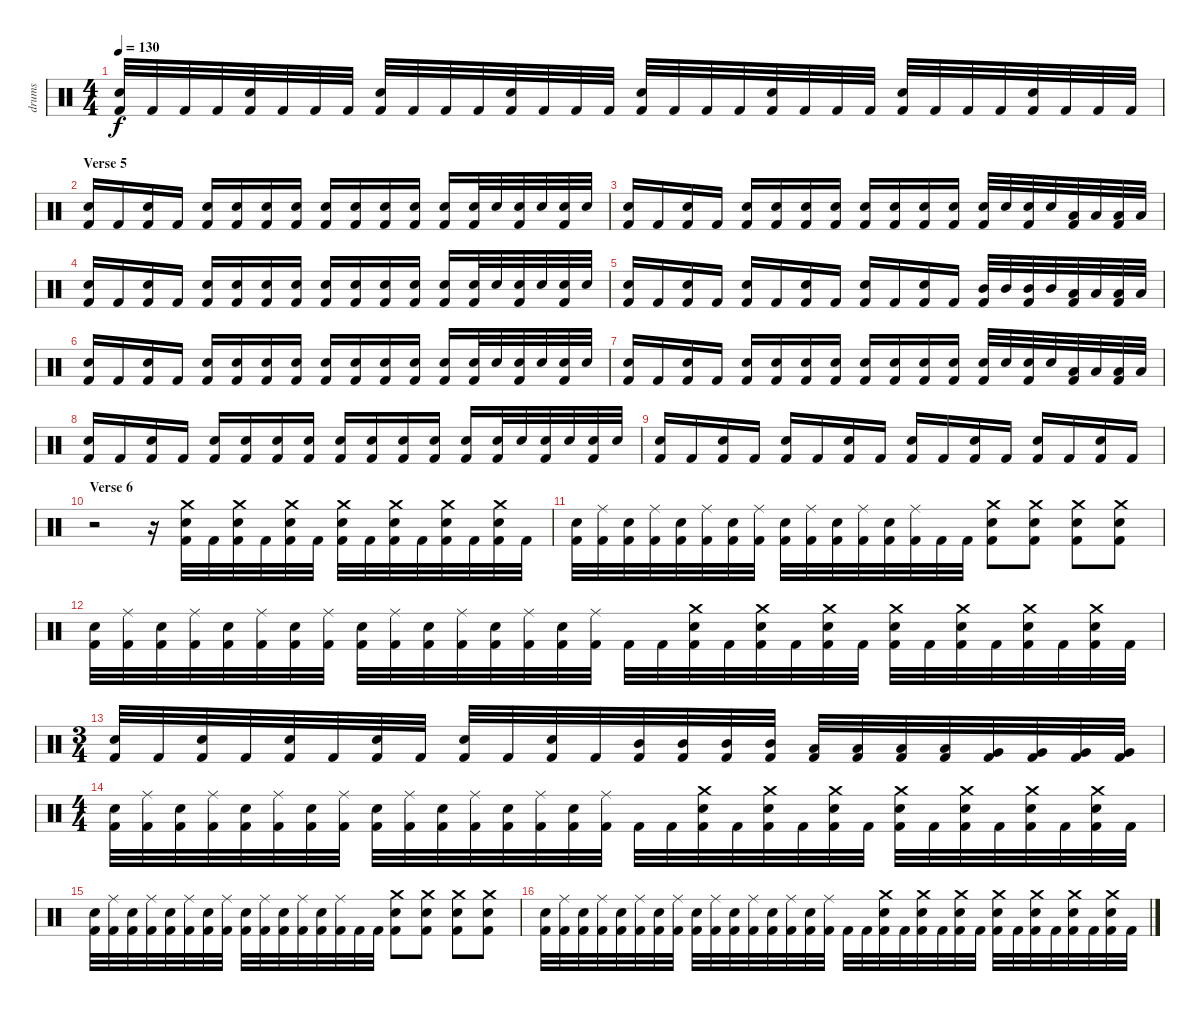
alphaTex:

\track ("drums" "drums") {instrument percussion}
\staff {score}
\articulation defaults
\ts (4 4)
\tempo 130
\clef neutral
\ks c
("Electric Snare (hit)" "Kick (hit) 2").32{dy f} "Kick (hit) 2".32 "Kick (hit) 2".32 "Kick (hit) 2".32 ("Electric Snare (hit)" "Kick (hit) 2").32 "Kick (hit) 2".32 "Kick (hit) 2".32 "Kick (hit) 2".32 ("Electric Snare (hit)" "Kick (hit) 2").32 "Kick (hit) 2".32 "Kick (hit) 2".32 "Kick (hit) 2".32 ("Electric Snare (hit)" "Kick (hit) 2").32 "Kick (hit) 2".32 "Kick (hit) 2".32 "Kick (hit) 2".32 ("Electric Snare (hit)" "Kick (hit) 2").32 "Kick (hit) 2".32 "Kick (hit) 2".32 "Kick (hit) 2".32 ("Electric Snare (hit)" "Kick (hit) 2").32 "Kick (hit) 2".32 "Kick (hit) 2".32 "Kick (hit) 2".32 ("Electric Snare (hit)" "Kick (hit) 2").32 "Kick (hit) 2".32 "Kick (hit) 2".32 "Kick (hit) 2".32 ("Electric Snare (hit)" "Kick (hit) 2").32 "Kick (hit) 2".32 "Kick (hit) 2".32 "Kick (hit) 2".32 |
\section ("" "Verse 5")
("Electric Snare (hit)" "Kick (hit) 2").16 "Kick (hit) 2".16 ("Electric Snare (hit)" "Kick (hit) 2").16 "Kick (hit) 2".16 ("Electric Snare (hit)" "Kick (hit) 2").16 ("Electric Snare (hit)" "Kick (hit) 2").16 ("Electric Snare (hit)" "Kick (hit) 2").16 ("Electric Snare (hit)" "Kick (hit) 2").16 ("Electric Snare (hit)" "Kick (hit) 2").16 ("Electric Snare (hit)" "Kick (hit) 2").16 ("Electric Snare (hit)" "Kick (hit) 2").16 ("Electric Snare (hit)" "Kick (hit) 2").16 ("Electric Snare (hit)" "Kick (hit) 2").16 ("Electric Snare (hit)" "Kick (hit) 2").32 "Electric Snare (hit)".32 ("Electric Snare (hit)" "Kick (hit) 2").32 "Electric Snare (hit)".32 ("Electric Snare (hit)" "Kick (hit) 2").32 "Electric Snare (hit)".32 |
("Electric Snare (hit)" "Kick (hit) 2").16 "Kick (hit) 2".16 ("Electric Snare (hit)" "Kick (hit) 2").16 "Kick (hit) 2".16 ("Electric Snare (hit)" "Kick (hit) 2").16 ("Electric Snare (hit)" "Kick (hit) 2").16 ("Electric Snare (hit)" "Kick (hit) 2").16 ("Electric Snare (hit)" "Kick (hit) 2").16 ("Electric Snare (hit)" "Kick (hit) 2").16 ("Electric Snare (hit)" "Kick (hit) 2").16 ("Electric Snare (hit)" "Kick (hit) 2").16 ("Electric Snare (hit)" "Kick (hit) 2").16 ("Electric Snare (hit)" "Kick (hit) 2").32 "Electric Snare (hit)".32 ("Electric Snare (hit)" "Kick (hit) 2").32 "Electric Snare (hit)".32 ("Low Tom (hit)" "Kick (hit) 2").32 "Low Tom (hit)".32 ("Low Tom (hit)" "Kick (hit) 2").32 "Low Tom (hit)".32 |
("Electric Snare (hit)" "Kick (hit) 2").16 "Kick (hit) 2".16 ("Electric Snare (hit)" "Kick (hit) 2").16 "Kick (hit) 2".16 ("Electric Snare (hit)" "Kick (hit) 2").16 ("Electric Snare (hit)" "Kick (hit) 2").16 ("Electric Snare (hit)" "Kick (hit) 2").16 ("Electric Snare (hit)" "Kick (hit) 2").16 ("Electric Snare (hit)" "Kick (hit) 2").16 ("Electric Snare (hit)" "Kick (hit) 2").16 ("Electric Snare (hit)" "Kick (hit) 2").16 ("Electric Snare (hit)" "Kick (hit) 2").16 ("Electric Snare (hit)" "Kick (hit) 2").16 ("Electric Snare (hit)" "Kick (hit) 2").32 "Electric Snare (hit)".32 ("Electric Snare (hit)" "Kick (hit) 2").32 "Electric Snare (hit)".32 ("Electric Snare (hit)" "Kick (hit) 2").32 "Electric Snare (hit)".32 |
("Electric Snare (hit)" "Kick (hit) 2").16 "Kick (hit) 2".16 ("Electric Snare (hit)" "Kick (hit) 2").16 "Kick (hit) 2".16 ("Electric Snare (hit)" "Kick (hit) 2").16 "Kick (hit) 2".16 ("Electric Snare (hit)" "Kick (hit) 2").16 "Kick (hit) 2".16 ("Electric Snare (hit)" "Kick (hit) 2").16 "Kick (hit) 2".16 ("Electric Snare (hit)" "Kick (hit) 2").16 "Kick (hit) 2".16 ("Mid Tom (hit)" "Kick (hit) 2").32 "Mid Tom (hit)".32 ("Mid Tom (hit)" "Kick (hit) 2").32 "Mid Tom (hit)".32 ("Low Tom (hit)" "Kick (hit) 2").32 "Low Tom (hit)".32 ("Low Tom (hit)" "Kick (hit) 2").32 "Low Tom (hit)".32 |
("Electric Snare (hit)" "Kick (hit) 2").16 "Kick (hit) 2".16 ("Electric Snare (hit)" "Kick (hit) 2").16 "Kick (hit) 2".16 ("Electric Snare (hit)" "Kick (hit) 2").16 ("Electric Snare (hit)" "Kick (hit) 2").16 ("Electric Snare (hit)" "Kick (hit) 2").16 ("Electric Snare (hit)" "Kick (hit) 2").16 ("Electric Snare (hit)" "Kick (hit) 2").16 ("Electric Snare (hit)" "Kick (hit) 2").16 ("Electric Snare (hit)" "Kick (hit) 2").16 ("Electric Snare (hit)" "Kick (hit) 2").16 ("Electric Snare (hit)" "Kick (hit) 2").16 ("Electric Snare (hit)" "Kick (hit) 2").32 "Electric Snare (hit)".32 ("Electric Snare (hit)" "Kick (hit) 2").32 "Electric Snare (hit)".32 ("Electric Snare (hit)" "Kick (hit) 2").32 "Electric Snare (hit)".32 |
("Electric Snare (hit)" "Kick (hit) 2").16 "Kick (hit) 2".16 ("Electric Snare (hit)" "Kick (hit) 2").16 "Kick (hit) 2".16 ("Electric Snare (hit)" "Kick (hit) 2").16 ("Electric Snare (hit)" "Kick (hit) 2").16 ("Electric Snare (hit)" "Kick (hit) 2").16 ("Electric Snare (hit)" "Kick (hit) 2").16 ("Electric Snare (hit)" "Kick (hit) 2").16 ("Electric Snare (hit)" "Kick (hit) 2").16 ("Electric Snare (hit)" "Kick (hit) 2").16 ("Electric Snare (hit)" "Kick (hit) 2").16 ("Electric Snare (hit)" "Kick (hit) 2").32 "Electric Snare (hit)".32 ("Electric Snare (hit)" "Kick (hit) 2").32 "Electric Snare (hit)".32 ("Low Tom (hit)" "Kick (hit) 2").32 "Low Tom (hit)".32 ("Low Tom (hit)" "Kick (hit) 2").32 "Low Tom (hit)".32 |
("Electric Snare (hit)" "Kick (hit) 2").16 "Kick (hit) 2".16 ("Electric Snare (hit)" "Kick (hit) 2").16 "Kick (hit) 2".16 ("Electric Snare (hit)" "Kick (hit) 2").16 ("Electric Snare (hit)" "Kick (hit) 2").16 ("Electric Snare (hit)" "Kick (hit) 2").16 ("Electric Snare (hit)" "Kick (hit) 2").16 ("Electric Snare (hit)" "Kick (hit) 2").16 ("Electric Snare (hit)" "Kick (hit) 2").16 ("Electric Snare (hit)" "Kick (hit) 2").16 ("Electric Snare (hit)" "Kick (hit) 2").16 ("Electric Snare (hit)" "Kick (hit) 2").16 ("Electric Snare (hit)" "Kick (hit) 2").32 "Electric Snare (hit)".32 ("Electric Snare (hit)" "Kick (hit) 2").32 "Electric Snare (hit)".32 ("Electric Snare (hit)" "Kick (hit) 2").32 "Electric Snare (hit)".32 |
("Electric Snare (hit)" "Kick (hit) 2").16 "Kick (hit) 2".16 ("Electric Snare (hit)" "Kick (hit) 2").16 "Kick (hit) 2".16 ("Electric Snare (hit)" "Kick (hit) 2").16 "Kick (hit) 2".16 ("Electric Snare (hit)" "Kick (hit) 2").16 "Kick (hit) 2".16 ("Electric Snare (hit)" "Kick (hit) 2").16 "Kick (hit) 2".16 ("Electric Snare (hit)" "Kick (hit) 2").16 "Kick (hit) 2".16 ("Electric Snare (hit)" "Kick (hit) 2").16 "Kick (hit) 2".16 ("Electric Snare (hit)" "Kick (hit) 2").16 "Kick (hit) 2".16 |
\section ("" "Verse 6")
r.2 r.16 ("Crash medium (hit)" "Electric Snare (hit)" "Kick (hit) 2").32 "Kick (hit) 2".32 ("Crash medium (hit)" "Electric Snare (hit)" "Kick (hit) 2").32 "Kick (hit) 2".32 ("Crash medium (hit)" "Electric Snare (hit)" "Kick (hit) 2").32 "Kick (hit) 2".32 ("Crash medium (hit)" "Electric Snare (hit)" "Kick (hit) 2").32 "Kick (hit) 2".32 ("Crash medium (hit)" "Electric Snare (hit)" "Kick (hit) 2").32 "Kick (hit) 2".32 ("Crash medium (hit)" "Electric Snare (hit)" "Kick (hit) 2").32 "Kick (hit) 2".32 ("Crash medium (hit)" "Electric Snare (hit)" "Kick (hit) 2").32 "Kick (hit) 2".32 |
("Electric Snare (hit)" "Kick (hit) 2").32 ("Ride (middle)" "Kick (hit) 2").32 ("Electric Snare (hit)" "Kick (hit) 2").32 ("Ride (middle)" "Kick (hit) 2").32 ("Electric Snare (hit)" "Kick (hit) 2").32 ("Ride (middle)" "Kick (hit) 2").32 ("Electric Snare (hit)" "Kick (hit) 2").32 ("Ride (middle)" "Kick (hit) 2").32 ("Electric Snare (hit)" "Kick (hit) 2").32 ("Ride (middle)" "Kick (hit) 2").32 ("Electric Snare (hit)" "Kick (hit) 2").32 ("Ride (middle)" "Kick (hit) 2").32 ("Electric Snare (hit)" "Kick (hit) 2").32 ("Ride (middle)" "Kick (hit) 2").32 "Kick (hit) 2".32 "Kick (hit) 2".32 ("Crash medium (hit)" "Electric Snare (hit)" "Kick (hit) 2").8 ("Crash medium (hit)" "Electric Snare (hit)" "Kick (hit) 2").8 ("Crash medium (hit)" "Electric Snare (hit)" "Kick (hit) 2").8 ("Crash medium (hit)" "Electric Snare (hit)" "Kick (hit) 2").8 |
("Electric Snare (hit)" "Kick (hit) 2").32 ("Ride (middle)" "Kick (hit) 2").32 ("Electric Snare (hit)" "Kick (hit) 2").32 ("Ride (middle)" "Kick (hit) 2").32 ("Electric Snare (hit)" "Kick (hit) 2").32 ("Ride (middle)" "Kick (hit) 2").32 ("Electric Snare (hit)" "Kick (hit) 2").32 ("Ride (middle)" "Kick (hit) 2").32 ("Electric Snare (hit)" "Kick (hit) 2").32 ("Ride (middle)" "Kick (hit) 2").32 ("Electric Snare (hit)" "Kick (hit) 2").32 ("Ride (middle)" "Kick (hit) 2").32 ("Electric Snare (hit)" "Kick (hit) 2").32 ("Ride (middle)" "Kick (hit) 2").32 ("Electric Snare (hit)" "Kick (hit) 2").32 ("Ride (middle)" "Kick (hit) 2").32 "Kick (hit) 2".32 "Kick (hit) 2".32 ("Crash medium (hit)" "Electric Snare (hit)" "Kick (hit) 2").32 "Kick (hit) 2".32 ("Crash medium (hit)" "Electric Snare (hit)" "Kick (hit) 2").32 "Kick (hit) 2".32 ("Crash medium (hit)" "Electric Snare (hit)" "Kick (hit) 2").32 "Kick (hit) 2".32 ("Crash medium (hit)" "Electric Snare (hit)" "Kick (hit) 2").32 "Kick (hit) 2".32 ("Crash medium (hit)" "Electric Snare (hit)" "Kick (hit) 2").32 "Kick (hit) 2".32 ("Crash medium (hit)" "Electric Snare (hit)" "Kick (hit) 2").32 "Kick (hit) 2".32 ("Crash medium (hit)" "Electric Snare (hit)" "Kick (hit) 2").32 "Kick (hit) 2".32 |
\ts (3 4)
("Electric Snare (hit)" "Kick (hit) 2").32 "Kick (hit) 2".32 ("Electric Snare (hit)" "Kick (hit) 2").32 "Kick (hit) 2".32 ("Electric Snare (hit)" "Kick (hit) 2").32 "Kick (hit) 2".32 ("Electric Snare (hit)" "Kick (hit) 2").32 "Kick (hit) 2".32 ("Electric Snare (hit)" "Kick (hit) 2").32 "Kick (hit) 2".32 ("Electric Snare (hit)" "Kick (hit) 2").32 "Kick (hit) 2".32 ("Mid Tom (hit)" "Kick (hit) 2").32 ("Mid Tom (hit)" "Kick (hit) 2").32 ("Mid Tom (hit)" "Kick (hit) 2").32 ("Mid Tom (hit)" "Kick (hit) 2").32 ("Low Tom (hit)" "Kick (hit) 2").32 ("Low Tom (hit)" "Kick (hit) 2").32 ("Low Tom (hit)" "Kick (hit) 2").32 ("Low Tom (hit)" "Kick (hit) 2").32 ("Very Low Tom (hit)" "Kick (hit) 2").32 ("Very Low Tom (hit)" "Kick (hit) 2").32 ("Very Low Tom (hit)" "Kick (hit) 2").32 ("Very Low Tom (hit)" "Kick (hit) 2").32 |
\ts (4 4)
("Electric Snare (hit)" "Kick (hit) 2").32 ("Ride (middle)" "Kick (hit) 2").32 ("Electric Snare (hit)" "Kick (hit) 2").32 ("Ride (middle)" "Kick (hit) 2").32 ("Electric Snare (hit)" "Kick (hit) 2").32 ("Ride (middle)" "Kick (hit) 2").32 ("Electric Snare (hit)" "Kick (hit) 2").32 ("Ride (middle)" "Kick (hit) 2").32 ("Electric Snare (hit)" "Kick (hit) 2").32 ("Ride (middle)" "Kick (hit) 2").32 ("Electric Snare (hit)" "Kick (hit) 2").32 ("Ride (middle)" "Kick (hit) 2").32 ("Electric Snare (hit)" "Kick (hit) 2").32 ("Ride (middle)" "Kick (hit) 2").32 ("Electric Snare (hit)" "Kick (hit) 2").32 ("Ride (middle)" "Kick (hit) 2").32 "Kick (hit) 2".32 "Kick (hit) 2".32 ("Crash medium (hit)" "Electric Snare (hit)" "Kick (hit) 2").32 "Kick (hit) 2".32 ("Crash medium (hit)" "Electric Snare (hit)" "Kick (hit) 2").32 "Kick (hit) 2".32 ("Crash medium (hit)" "Electric Snare (hit)" "Kick (hit) 2").32 "Kick (hit) 2".32 ("Crash medium (hit)" "Electric Snare (hit)" "Kick (hit) 2").32 "Kick (hit) 2".32 ("Crash medium (hit)" "Electric Snare (hit)" "Kick (hit) 2").32 "Kick (hit) 2".32 ("Crash medium (hit)" "Electric Snare (hit)" "Kick (hit) 2").32 "Kick (hit) 2".32 ("Crash medium (hit)" "Electric Snare (hit)" "Kick (hit) 2").32 "Kick (hit) 2".32 |
("Electric Snare (hit)" "Kick (hit) 2").32 ("Ride (middle)" "Kick (hit) 2").32 ("Electric Snare (hit)" "Kick (hit) 2").32 ("Ride (middle)" "Kick (hit) 2").32 ("Electric Snare (hit)" "Kick (hit) 2").32 ("Ride (middle)" "Kick (hit) 2").32 ("Electric Snare (hit)" "Kick (hit) 2").32 ("Ride (middle)" "Kick (hit) 2").32 ("Electric Snare (hit)" "Kick (hit) 2").32 ("Ride (middle)" "Kick (hit) 2").32 ("Electric Snare (hit)" "Kick (hit) 2").32 ("Ride (middle)" "Kick (hit) 2").32 ("Electric Snare (hit)" "Kick (hit) 2").32 ("Ride (middle)" "Kick (hit) 2").32 "Kick (hit) 2".32 "Kick (hit) 2".32 ("Crash medium (hit)" "Electric Snare (hit)" "Kick (hit) 2").8 ("Crash medium (hit)" "Electric Snare (hit)" "Kick (hit) 2").8 ("Crash medium (hit)" "Electric Snare (hit)" "Kick (hit) 2").8 ("Crash medium (hit)" "Electric Snare (hit)" "Kick (hit) 2").8 |
("Electric Snare (hit)" "Kick (hit) 2").32 ("Ride (middle)" "Kick (hit) 2").32 ("Electric Snare (hit)" "Kick (hit) 2").32 ("Ride (middle)" "Kick (hit) 2").32 ("Electric Snare (hit)" "Kick (hit) 2").32 ("Ride (middle)" "Kick (hit) 2").32 ("Electric Snare (hit)" "Kick (hit) 2").32 ("Ride (middle)" "Kick (hit) 2").32 ("Electric Snare (hit)" "Kick (hit) 2").32 ("Ride (middle)" "Kick (hit) 2").32 ("Electric Snare (hit)" "Kick (hit) 2").32 ("Ride (middle)" "Kick (hit) 2").32 ("Electric Snare (hit)" "Kick (hit) 2").32 ("Ride (middle)" "Kick (hit) 2").32 ("Electric Snare (hit)" "Kick (hit) 2").32 ("Ride (middle)" "Kick (hit) 2").32 "Kick (hit) 2".32 "Kick (hit) 2".32 ("Crash medium (hit)" "Electric Snare (hit)" "Kick (hit) 2").32 "Kick (hit) 2".32 ("Crash medium (hit)" "Electric Snare (hit)" "Kick (hit) 2").32 "Kick (hit) 2".32 ("Crash medium (hit)" "Electric Snare (hit)" "Kick (hit) 2").32 "Kick (hit) 2".32 ("Crash medium (hit)" "Electric Snare (hit)" "Kick (hit) 2").32 "Kick (hit) 2".32 ("Crash medium (hit)" "Electric Snare (hit)" "Kick (hit) 2").32 "Kick (hit) 2".32 ("Crash medium (hit)" "Electric Snare (hit)" "Kick (hit) 2").32 "Kick (hit) 2".32 ("Crash medium (hit)" "Electric Snare (hit)" "Kick (hit) 2").32 "Kick (hit) 2".32
